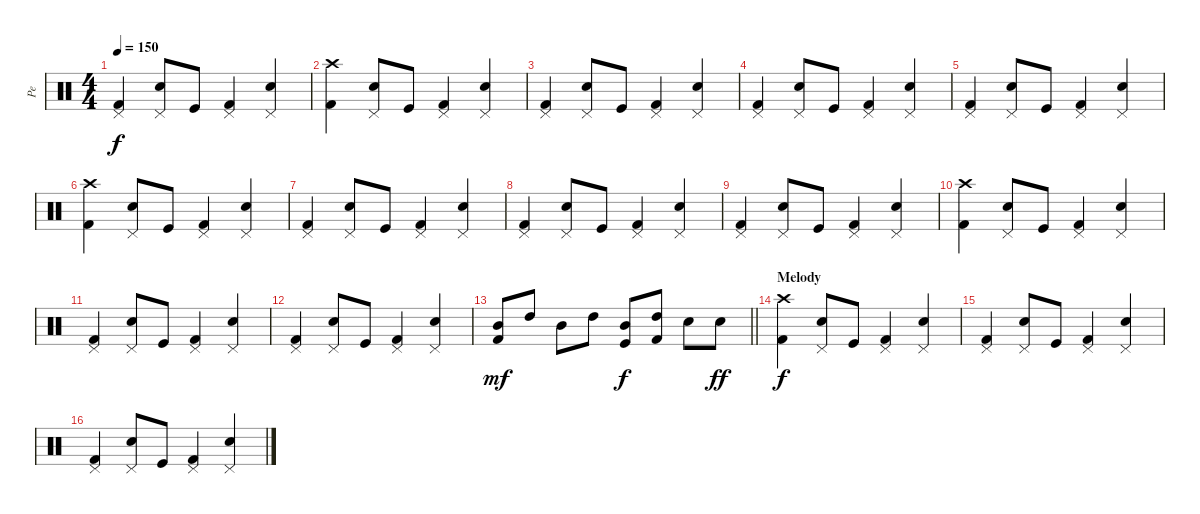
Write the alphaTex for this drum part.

\track ("Pe" "Pe") {instrument percussion}
\staff {score}
\articulation defaults
\ts (4 4)
\tempo 150
\clef neutral
\ks c
("Kick (hit) 2" "Pedal Hi-Hat (hit)").4{dy f} ("Electric Snare (hit)" "Pedal Hi-Hat (hit)").8 "Kick (hit)".8 ("Kick (hit) 2" "Pedal Hi-Hat (hit)").4 ("Electric Snare (hit)" "Pedal Hi-Hat (hit)").4 |
("Kick (hit) 2" "Crash high (hit)").4 ("Electric Snare (hit)" "Pedal Hi-Hat (hit)").8 "Kick (hit)".8 ("Kick (hit) 2" "Pedal Hi-Hat (hit)").4 ("Electric Snare (hit)" "Pedal Hi-Hat (hit)").4 |
("Kick (hit) 2" "Pedal Hi-Hat (hit)").4 ("Electric Snare (hit)" "Pedal Hi-Hat (hit)").8 "Kick (hit)".8 ("Kick (hit) 2" "Pedal Hi-Hat (hit)").4 ("Electric Snare (hit)" "Pedal Hi-Hat (hit)").4 |
("Kick (hit) 2" "Pedal Hi-Hat (hit)").4 ("Electric Snare (hit)" "Pedal Hi-Hat (hit)").8 "Kick (hit)".8 ("Kick (hit) 2" "Pedal Hi-Hat (hit)").4 ("Electric Snare (hit)" "Pedal Hi-Hat (hit)").4 |
("Kick (hit) 2" "Pedal Hi-Hat (hit)").4 ("Electric Snare (hit)" "Pedal Hi-Hat (hit)").8 "Kick (hit)".8 ("Kick (hit) 2" "Pedal Hi-Hat (hit)").4 ("Electric Snare (hit)" "Pedal Hi-Hat (hit)").4 |
("Kick (hit) 2" "Crash high (hit)").4 ("Electric Snare (hit)" "Pedal Hi-Hat (hit)").8 "Kick (hit)".8 ("Kick (hit) 2" "Pedal Hi-Hat (hit)").4 ("Electric Snare (hit)" "Pedal Hi-Hat (hit)").4 |
("Kick (hit) 2" "Pedal Hi-Hat (hit)").4 ("Electric Snare (hit)" "Pedal Hi-Hat (hit)").8 "Kick (hit)".8 ("Kick (hit) 2" "Pedal Hi-Hat (hit)").4 ("Electric Snare (hit)" "Pedal Hi-Hat (hit)").4 |
("Kick (hit) 2" "Pedal Hi-Hat (hit)").4 ("Electric Snare (hit)" "Pedal Hi-Hat (hit)").8 "Kick (hit)".8 ("Kick (hit) 2" "Pedal Hi-Hat (hit)").4 ("Electric Snare (hit)" "Pedal Hi-Hat (hit)").4 |
("Kick (hit) 2" "Pedal Hi-Hat (hit)").4 ("Electric Snare (hit)" "Pedal Hi-Hat (hit)").8 "Kick (hit)".8 ("Kick (hit) 2" "Pedal Hi-Hat (hit)").4 ("Electric Snare (hit)" "Pedal Hi-Hat (hit)").4 |
("Kick (hit) 2" "Crash high (hit)").4 ("Electric Snare (hit)" "Pedal Hi-Hat (hit)").8 "Kick (hit)".8 ("Kick (hit) 2" "Pedal Hi-Hat (hit)").4 ("Electric Snare (hit)" "Pedal Hi-Hat (hit)").4 |
("Kick (hit) 2" "Pedal Hi-Hat (hit)").4 ("Electric Snare (hit)" "Pedal Hi-Hat (hit)").8 "Kick (hit)".8 ("Kick (hit) 2" "Pedal Hi-Hat (hit)").4 ("Electric Snare (hit)" "Pedal Hi-Hat (hit)").4 |
("Kick (hit) 2" "Pedal Hi-Hat (hit)").4 ("Electric Snare (hit)" "Pedal Hi-Hat (hit)").8 "Kick (hit)".8 ("Kick (hit) 2" "Pedal Hi-Hat (hit)").4 ("Electric Snare (hit)" "Pedal Hi-Hat (hit)").4 |
\barLineRight lightlight
("Kick (hit) 2" "Mid Tom (hit)").8{dy mf} "High Tom (hit)".8 "Mid Tom (hit)".8 "High Tom (hit)".8 ("Kick (hit)" "Mid Tom (hit)").8{dy f} ("Kick (hit) 2" "High Tom (hit)").8 "Electric Snare (hit)".8 "Electric Snare (hit)".8{dy ff} |
\section ("" "Melody")
("Kick (hit) 2" "Crash high (hit)").4{dy f} ("Electric Snare (hit)" "Pedal Hi-Hat (hit)").8 "Kick (hit)".8 ("Kick (hit) 2" "Pedal Hi-Hat (hit)").4 ("Electric Snare (hit)" "Pedal Hi-Hat (hit)").4 |
("Kick (hit) 2" "Pedal Hi-Hat (hit)").4 ("Electric Snare (hit)" "Pedal Hi-Hat (hit)").8 "Kick (hit)".8 ("Kick (hit) 2" "Pedal Hi-Hat (hit)").4 ("Electric Snare (hit)" "Pedal Hi-Hat (hit)").4 |
("Kick (hit) 2" "Pedal Hi-Hat (hit)").4 ("Electric Snare (hit)" "Pedal Hi-Hat (hit)").8 "Kick (hit)".8 ("Kick (hit) 2" "Pedal Hi-Hat (hit)").4 ("Electric Snare (hit)" "Pedal Hi-Hat (hit)").4
